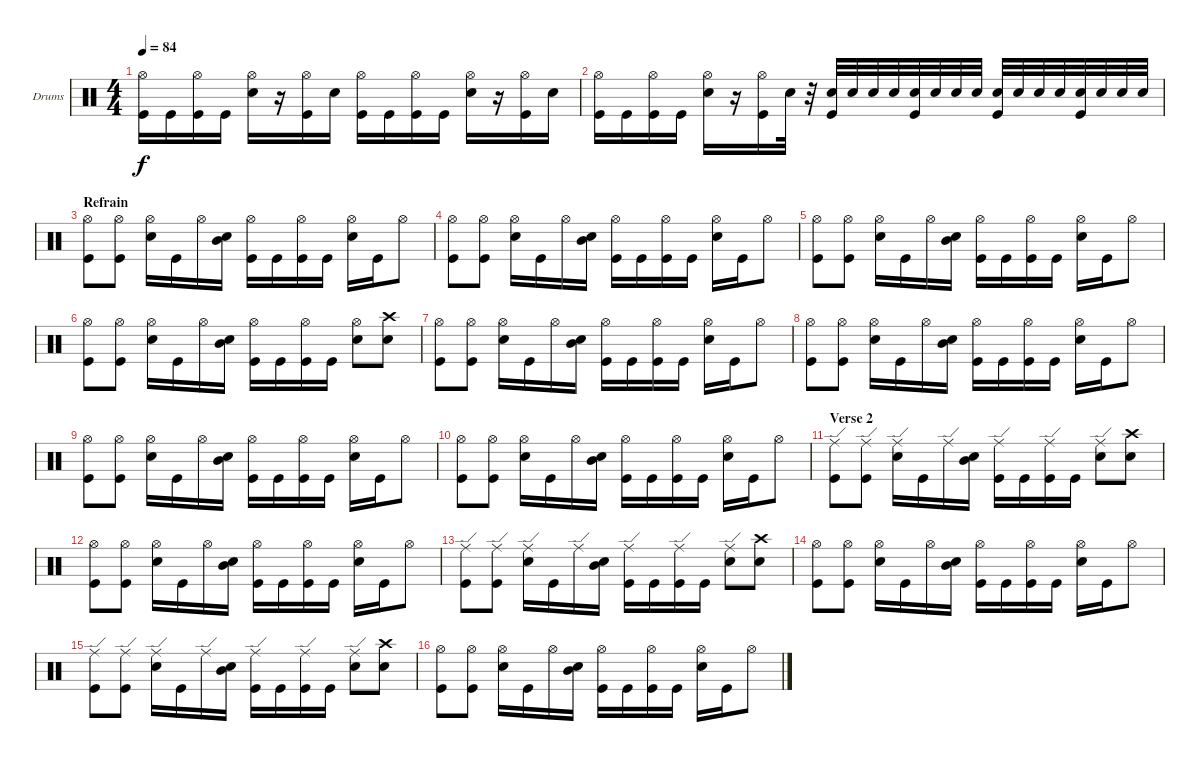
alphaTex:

\bracketExtendMode groupsimilarinstruments
\firstSystemTrackNameOrientation horizontal
\otherSystemsTrackNameOrientation horizontal
\track ("Dave Grohl" "Drums") {instrument percussion}
\staff {score}
\articulation defaults
\ts (4 4)
\tempo 84
\clef neutral
\ks c
("Hi-Hat (open)" "Kick (hit)").16{dy f} "Kick (hit)".16 ("Hi-Hat (open)" "Kick (hit)").16 "Kick (hit)".16 ("Hi-Hat (open)" "Snare (hit) 2").16 r.16 ("Hi-Hat (open)" "Kick (hit)").16 "Snare (hit) 2".16 ("Hi-Hat (open)" "Kick (hit)").16 "Kick (hit)".16 ("Hi-Hat (open)" "Kick (hit)").16 "Kick (hit)".16 ("Hi-Hat (open)" "Snare (hit) 2").16 r.16 ("Hi-Hat (open)" "Kick (hit)").16 "Snare (hit) 2".16 |
("Hi-Hat (open)" "Kick (hit)").16 "Kick (hit)".16 ("Hi-Hat (open)" "Kick (hit)").16 "Kick (hit)".16 ("Hi-Hat (open)" "Snare (hit) 2").16 r.16 ("Hi-Hat (open)" "Kick (hit)").16 "Snare (hit) 2".32 r.32 ("Kick (hit)" "Snare (hit) 2").32 "Snare (hit) 2".32 "Snare (hit) 2".32 "Snare (hit) 2".32 ("Kick (hit)" "Snare (hit) 2").32 "Snare (hit) 2".32 "Snare (hit) 2".32 "Snare (hit) 2".32 ("Kick (hit)" "Snare (hit) 2").32 "Snare (hit) 2".32 "Snare (hit) 2".32 "Snare (hit) 2".32 ("Kick (hit)" "Snare (hit) 2").32 "Snare (hit) 2".32 "Snare (hit) 2".32 "Snare (hit) 2".32 |
\section ("" "Refrain")
("Hi-Hat (open)" "Kick (hit)").8 ("Hi-Hat (open)" "Kick (hit)").8 ("Hi-Hat (open)" "Snare (hit) 2").16 "Kick (hit)".16 "Hi-Hat (open)".16 ("Snare (hit) 2" "Mid Tom (hit)").16 ("Hi-Hat (open)" "Kick (hit)").16 "Kick (hit)".16 ("Hi-Hat (open)" "Kick (hit)").16 "Kick (hit)".16 ("Hi-Hat (open)" "Snare (hit) 2").16 "Kick (hit)".16 "Hi-Hat (open)".8 |
("Hi-Hat (open)" "Kick (hit)").8 ("Hi-Hat (open)" "Kick (hit)").8 ("Hi-Hat (open)" "Snare (hit) 2").16 "Kick (hit)".16 "Hi-Hat (open)".16 ("Snare (hit) 2" "Mid Tom (hit)").16 ("Hi-Hat (open)" "Kick (hit)").16 "Kick (hit)".16 ("Hi-Hat (open)" "Kick (hit)").16 "Kick (hit)".16 ("Hi-Hat (open)" "Snare (hit) 2").16 "Kick (hit)".16 "Hi-Hat (open)".8 |
("Hi-Hat (open)" "Kick (hit)").8 ("Hi-Hat (open)" "Kick (hit)").8 ("Hi-Hat (open)" "Snare (hit) 2").16 "Kick (hit)".16 "Hi-Hat (open)".16 ("Snare (hit) 2" "Mid Tom (hit)").16 ("Hi-Hat (open)" "Kick (hit)").16 "Kick (hit)".16 ("Hi-Hat (open)" "Kick (hit)").16 "Kick (hit)".16 ("Hi-Hat (open)" "Snare (hit) 2").16 "Kick (hit)".16 "Hi-Hat (open)".8 |
("Hi-Hat (open)" "Kick (hit)").8 ("Hi-Hat (open)" "Kick (hit)").8 ("Hi-Hat (open)" "Snare (hit) 2").16 "Kick (hit)".16 "Hi-Hat (open)".16 ("Snare (hit) 2" "Mid Tom (hit)").16 ("Hi-Hat (open)" "Kick (hit)").16 "Kick (hit)".16 ("Hi-Hat (open)" "Kick (hit)").16 "Kick (hit)".16 ("Hi-Hat (open)" "Snare (hit) 2").8 ("Crash high (hit)" "Snare (hit) 2").8 |
("Hi-Hat (open)" "Kick (hit)").8 ("Hi-Hat (open)" "Kick (hit)").8 ("Hi-Hat (open)" "Snare (hit) 2").16 "Kick (hit)".16 "Hi-Hat (open)".16 ("Snare (hit) 2" "Mid Tom (hit)").16 ("Hi-Hat (open)" "Kick (hit)").16 "Kick (hit)".16 ("Hi-Hat (open)" "Kick (hit)").16 "Kick (hit)".16 ("Hi-Hat (open)" "Snare (hit) 2").16 "Kick (hit)".16 "Hi-Hat (open)".8 |
("Hi-Hat (open)" "Kick (hit)").8 ("Hi-Hat (open)" "Kick (hit)").8 ("Hi-Hat (open)" "Snare (hit) 2").16 "Kick (hit)".16 "Hi-Hat (open)".16 ("Snare (hit) 2" "Mid Tom (hit)").16 ("Hi-Hat (open)" "Kick (hit)").16 "Kick (hit)".16 ("Hi-Hat (open)" "Kick (hit)").16 "Kick (hit)".16 ("Hi-Hat (open)" "Snare (hit) 2").16 "Kick (hit)".16 "Hi-Hat (open)".8 |
("Hi-Hat (open)" "Kick (hit)").8 ("Hi-Hat (open)" "Kick (hit)").8 ("Hi-Hat (open)" "Snare (hit) 2").16 "Kick (hit)".16 "Hi-Hat (open)".16 ("Snare (hit) 2" "Mid Tom (hit)").16 ("Hi-Hat (open)" "Kick (hit)").16 "Kick (hit)".16 ("Hi-Hat (open)" "Kick (hit)").16 "Kick (hit)".16 ("Hi-Hat (open)" "Snare (hit) 2").16 "Kick (hit)".16 "Hi-Hat (open)".8 |
("Hi-Hat (open)" "Kick (hit)").8 ("Hi-Hat (open)" "Kick (hit)").8 ("Hi-Hat (open)" "Snare (hit) 2").16 "Kick (hit)".16 "Hi-Hat (open)".16 ("Snare (hit) 2" "Mid Tom (hit)").16 ("Hi-Hat (open)" "Kick (hit)").16 "Kick (hit)".16 ("Hi-Hat (open)" "Kick (hit)").16 "Kick (hit)".16 ("Hi-Hat (open)" "Snare (hit) 2").16 "Kick (hit)".16 "Hi-Hat (open)".8 |
\section ("" "Verse 2")
("Ride (edge)" "Kick (hit)").8 ("Ride (edge)" "Kick (hit)").8 ("Ride (edge)" "Snare (hit) 2").16 "Kick (hit)".16 "Ride (edge)".16 ("Snare (hit) 2" "Mid Tom (hit)").16 ("Ride (edge)" "Kick (hit)").16 "Kick (hit)".16 ("Ride (edge)" "Kick (hit)").16 "Kick (hit)".16 ("Ride (edge)" "Snare (hit) 2").8 ("Crash high (hit)" "Snare (hit) 2").8 |
("Hi-Hat (open)" "Kick (hit)").8 ("Hi-Hat (open)" "Kick (hit)").8 ("Hi-Hat (open)" "Snare (hit) 2").16 "Kick (hit)".16 "Hi-Hat (open)".16 ("Snare (hit) 2" "Mid Tom (hit)").16 ("Hi-Hat (open)" "Kick (hit)").16 "Kick (hit)".16 ("Hi-Hat (open)" "Kick (hit)").16 "Kick (hit)".16 ("Hi-Hat (open)" "Snare (hit) 2").16 "Kick (hit)".16 "Hi-Hat (open)".8 |
("Ride (edge)" "Kick (hit)").8 ("Ride (edge)" "Kick (hit)").8 ("Ride (edge)" "Snare (hit) 2").16 "Kick (hit)".16 "Ride (edge)".16 ("Snare (hit) 2" "Mid Tom (hit)").16 ("Ride (edge)" "Kick (hit)").16 "Kick (hit)".16 ("Ride (edge)" "Kick (hit)").16 "Kick (hit)".16 ("Ride (edge)" "Snare (hit) 2").8 ("Crash high (hit)" "Snare (hit) 2").8 |
("Hi-Hat (open)" "Kick (hit)").8 ("Hi-Hat (open)" "Kick (hit)").8 ("Hi-Hat (open)" "Snare (hit) 2").16 "Kick (hit)".16 "Hi-Hat (open)".16 ("Snare (hit) 2" "Mid Tom (hit)").16 ("Hi-Hat (open)" "Kick (hit)").16 "Kick (hit)".16 ("Hi-Hat (open)" "Kick (hit)").16 "Kick (hit)".16 ("Hi-Hat (open)" "Snare (hit) 2").16 "Kick (hit)".16 "Hi-Hat (open)".8 |
("Ride (edge)" "Kick (hit)").8 ("Ride (edge)" "Kick (hit)").8 ("Ride (edge)" "Snare (hit) 2").16 "Kick (hit)".16 "Ride (edge)".16 ("Snare (hit) 2" "Mid Tom (hit)").16 ("Ride (edge)" "Kick (hit)").16 "Kick (hit)".16 ("Ride (edge)" "Kick (hit)").16 "Kick (hit)".16 ("Ride (edge)" "Snare (hit) 2").8 ("Crash high (hit)" "Snare (hit) 2").8 |
("Hi-Hat (open)" "Kick (hit)").8 ("Hi-Hat (open)" "Kick (hit)").8 ("Hi-Hat (open)" "Snare (hit) 2").16 "Kick (hit)".16 "Hi-Hat (open)".16 ("Snare (hit) 2" "Mid Tom (hit)").16 ("Hi-Hat (open)" "Kick (hit)").16 "Kick (hit)".16 ("Hi-Hat (open)" "Kick (hit)").16 "Kick (hit)".16 ("Hi-Hat (open)" "Snare (hit) 2").16 "Kick (hit)".16 "Hi-Hat (open)".8
